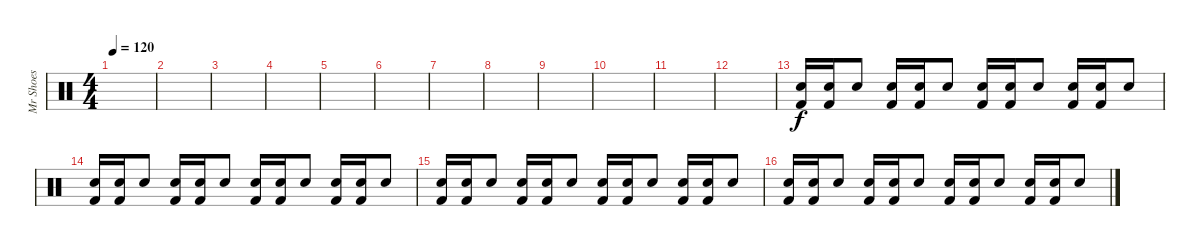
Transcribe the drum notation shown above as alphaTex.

\track ("Mr Shoes" "Mr Shoes") {instrument percussion}
\staff {score}
\articulation defaults
\ts (4 4)
\tempo 120
\clef neutral
\ks c
|
|
|
|
|
|
|
|
|
|
|
|
("Electric Snare (hit)" "Kick (hit) 2").16 ("Electric Snare (hit)" "Kick (hit) 2").16 "Electric Snare (hit)".8 ("Electric Snare (hit)" "Kick (hit) 2").16 ("Electric Snare (hit)" "Kick (hit) 2").16 "Electric Snare (hit)".8 ("Electric Snare (hit)" "Kick (hit) 2").16 ("Electric Snare (hit)" "Kick (hit) 2").16 "Electric Snare (hit)".8 ("Electric Snare (hit)" "Kick (hit) 2").16 ("Electric Snare (hit)" "Kick (hit) 2").16 "Electric Snare (hit)".8 |
("Electric Snare (hit)" "Kick (hit) 2").16 ("Electric Snare (hit)" "Kick (hit) 2").16 "Electric Snare (hit)".8 ("Electric Snare (hit)" "Kick (hit) 2").16 ("Electric Snare (hit)" "Kick (hit) 2").16 "Electric Snare (hit)".8 ("Electric Snare (hit)" "Kick (hit) 2").16 ("Electric Snare (hit)" "Kick (hit) 2").16 "Electric Snare (hit)".8 ("Electric Snare (hit)" "Kick (hit) 2").16 ("Electric Snare (hit)" "Kick (hit) 2").16 "Electric Snare (hit)".8 |
("Electric Snare (hit)" "Kick (hit) 2").16 ("Electric Snare (hit)" "Kick (hit) 2").16 "Electric Snare (hit)".8 ("Electric Snare (hit)" "Kick (hit) 2").16 ("Electric Snare (hit)" "Kick (hit) 2").16 "Electric Snare (hit)".8 ("Electric Snare (hit)" "Kick (hit) 2").16 ("Electric Snare (hit)" "Kick (hit) 2").16 "Electric Snare (hit)".8 ("Electric Snare (hit)" "Kick (hit) 2").16 ("Electric Snare (hit)" "Kick (hit) 2").16 "Electric Snare (hit)".8 |
("Electric Snare (hit)" "Kick (hit) 2").16 ("Electric Snare (hit)" "Kick (hit) 2").16 "Electric Snare (hit)".8 ("Electric Snare (hit)" "Kick (hit) 2").16 ("Electric Snare (hit)" "Kick (hit) 2").16 "Electric Snare (hit)".8 ("Electric Snare (hit)" "Kick (hit) 2").16 ("Electric Snare (hit)" "Kick (hit) 2").16 "Electric Snare (hit)".8 ("Electric Snare (hit)" "Kick (hit) 2").16 ("Electric Snare (hit)" "Kick (hit) 2").16 "Electric Snare (hit)".8
